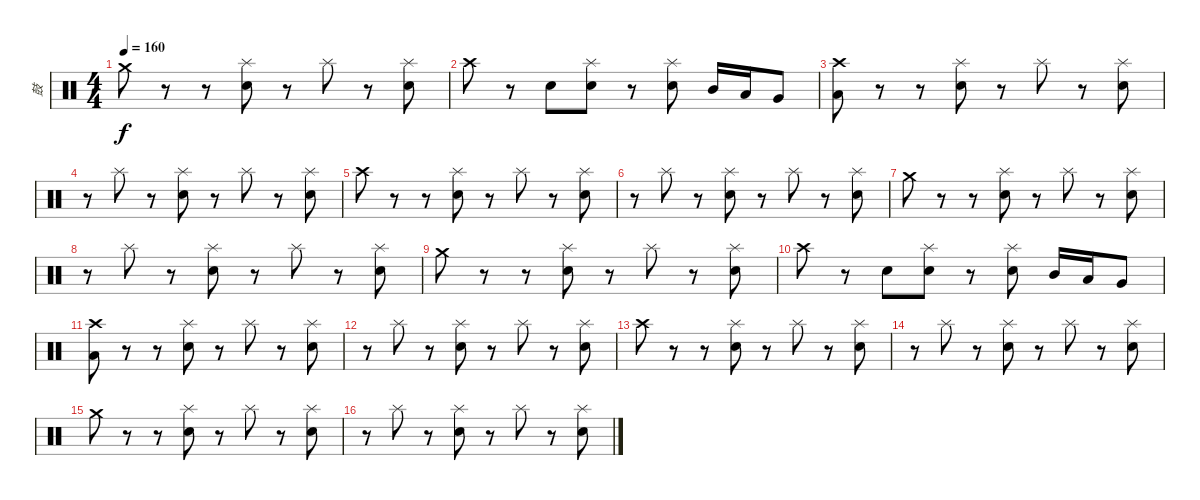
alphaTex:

\track ("鼓" "鼓") {instrument percussion}
\staff {score}
\articulation defaults
\ts (4 4)
\tempo 160
\clef neutral
\ks c "Crash medium (hit)".8{dy f}
r.8 r.8 ("Splash (hit)" "Snare (hit) 2").8 r.8 "Splash (hit)".8 r.8 ("Splash (hit)" "Snare (hit) 2").8 |
"Crash high (hit)".8 r.8 "Snare (hit) 2".8 ("Splash (hit)" "Snare (hit) 2").8 r.8 ("Splash (hit)" "Snare (hit) 2").8 "Mid Tom (hit)".16 "Low Tom (hit)".16 "Very Low Tom (hit)".8 |
("Crash high (hit)" "Low Floor Tom (hit)").8 r.8 r.8 ("Splash (hit)" "Snare (hit) 2").8 r.8 "Splash (hit)".8 r.8 ("Splash (hit)" "Snare (hit) 2").8 |
r.8 "Splash (hit)".8 r.8 ("Splash (hit)" "Snare (hit) 2").8 r.8 "Splash (hit)".8 r.8 ("Splash (hit)" "Snare (hit) 2").8 |
"Crash high (hit)".8 r.8 r.8 ("Splash (hit)" "Snare (hit) 2").8 r.8 "Splash (hit)".8 r.8 ("Splash (hit)" "Snare (hit) 2").8 |
r.8 "Splash (hit)".8 r.8 ("Splash (hit)" "Snare (hit) 2").8 r.8 "Splash (hit)".8 r.8 ("Splash (hit)" "Snare (hit) 2").8 |
"Crash medium (hit)".8 r.8 r.8 ("Splash (hit)" "Snare (hit) 2").8 r.8 "Splash (hit)".8 r.8 ("Splash (hit)" "Snare (hit) 2").8 |
r.8 "Splash (hit)".8 r.8 ("Splash (hit)" "Snare (hit) 2").8 r.8 "Splash (hit)".8 r.8 ("Splash (hit)" "Snare (hit) 2").8 |
"Crash medium (hit)".8 r.8 r.8 ("Splash (hit)" "Snare (hit) 2").8 r.8 "Splash (hit)".8 r.8 ("Splash (hit)" "Snare (hit) 2").8 |
"Crash high (hit)".8 r.8 "Snare (hit) 2".8 ("Splash (hit)" "Snare (hit) 2").8 r.8 ("Splash (hit)" "Snare (hit) 2").8 "Mid Tom (hit)".16 "Low Tom (hit)".16 "Very Low Tom (hit)".8 |
("Crash high (hit)" "Low Floor Tom (hit)").8 r.8 r.8 ("Splash (hit)" "Snare (hit) 2").8 r.8 "Splash (hit)".8 r.8 ("Splash (hit)" "Snare (hit) 2").8 |
r.8 "Splash (hit)".8 r.8 ("Splash (hit)" "Snare (hit) 2").8 r.8 "Splash (hit)".8 r.8 ("Splash (hit)" "Snare (hit) 2").8 |
"Crash high (hit)".8 r.8 r.8 ("Splash (hit)" "Snare (hit) 2").8 r.8 "Splash (hit)".8 r.8 ("Splash (hit)" "Snare (hit) 2").8 |
r.8 "Splash (hit)".8 r.8 ("Splash (hit)" "Snare (hit) 2").8 r.8 "Splash (hit)".8 r.8 ("Splash (hit)" "Snare (hit) 2").8 |
"Crash medium (hit)".8 r.8 r.8 ("Splash (hit)" "Snare (hit) 2").8 r.8 "Splash (hit)".8 r.8 ("Splash (hit)" "Snare (hit) 2").8 |
r.8 "Splash (hit)".8 r.8 ("Splash (hit)" "Snare (hit) 2").8 r.8 "Splash (hit)".8 r.8 ("Splash (hit)" "Snare (hit) 2").8
